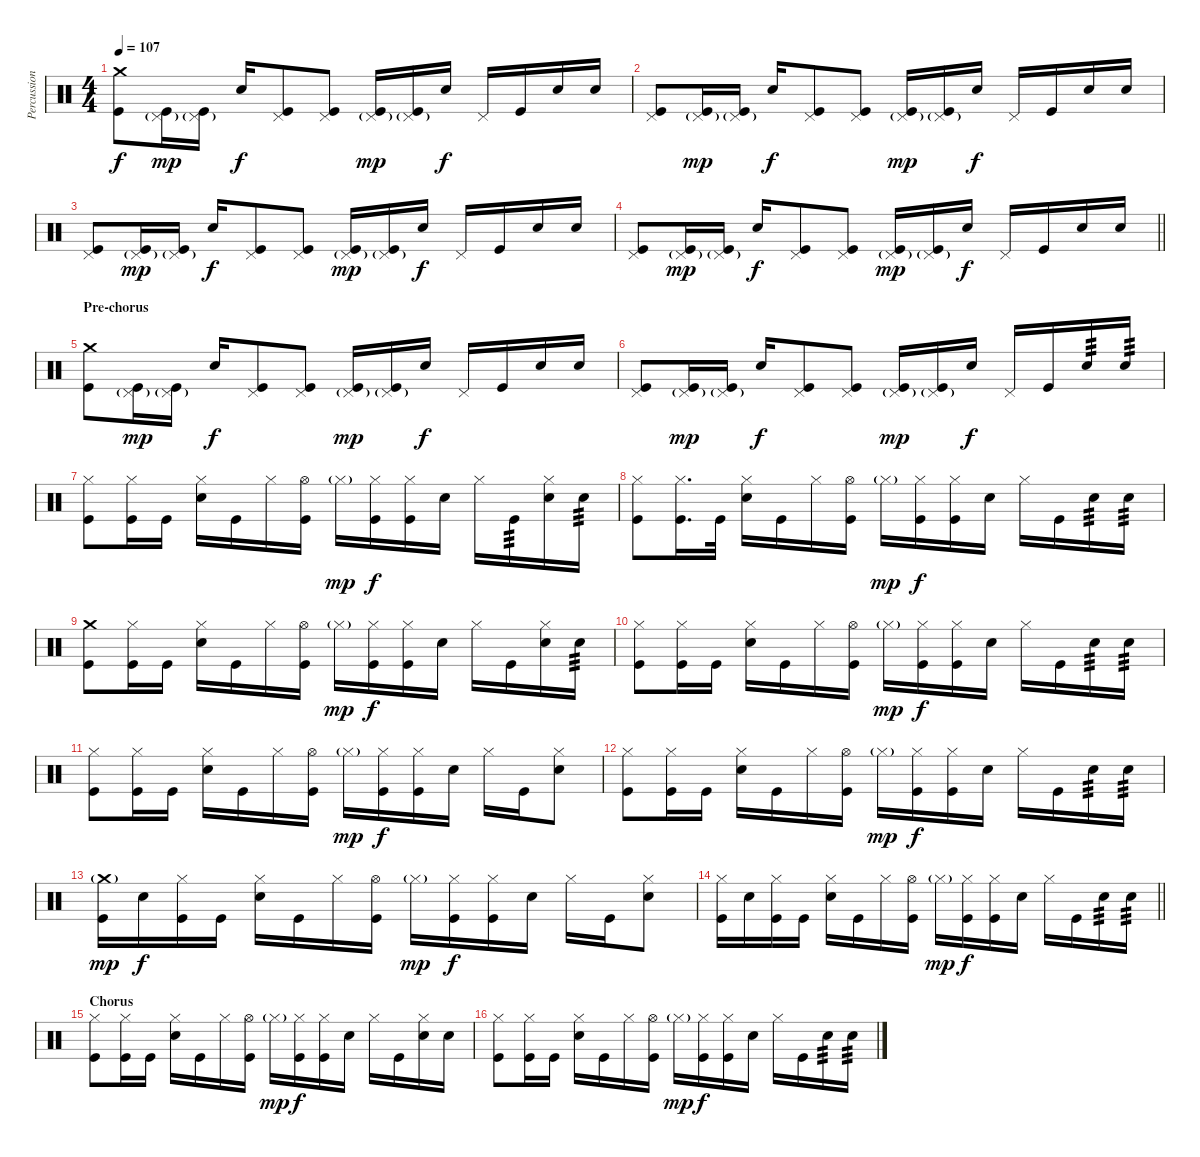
\track ("Percussion" "Percussion") {instrument percussion}
\staff {score}
\articulation defaults
\ts (4 4)
\tempo 107
\clef neutral
\ks c
("Crash medium (hit)" "Kick (hit)").8{dy f} ("Pedal Hi-Hat (hit)"{g} "Kick (hit)").16{dy mp} ("Pedal Hi-Hat (hit)"{g} "Kick (hit)").16 "Snare (hit) 2".16{dy f} ("Pedal Hi-Hat (hit)" "Kick (hit)").8 ("Pedal Hi-Hat (hit)" "Kick (hit)").8 ("Pedal Hi-Hat (hit)"{g} "Kick (hit)").16{dy mp} ("Pedal Hi-Hat (hit)"{g} "Kick (hit)").16 "Snare (hit) 2".16{dy f} "Pedal Hi-Hat (hit)".16 "Kick (hit)".16 "Snare (hit) 2".16 "Snare (hit) 2".16 |
("Pedal Hi-Hat (hit)" "Kick (hit)").8 ("Pedal Hi-Hat (hit)"{g} "Kick (hit)").16{dy mp} ("Pedal Hi-Hat (hit)"{g} "Kick (hit)").16 "Snare (hit) 2".16{dy f} ("Pedal Hi-Hat (hit)" "Kick (hit)").8 ("Pedal Hi-Hat (hit)" "Kick (hit)").8 ("Pedal Hi-Hat (hit)"{g} "Kick (hit)").16{dy mp} ("Pedal Hi-Hat (hit)"{g} "Kick (hit)").16 "Snare (hit) 2".16{dy f} "Pedal Hi-Hat (hit)".16 "Kick (hit)".16 "Snare (hit) 2".16 "Snare (hit) 2".16 |
("Pedal Hi-Hat (hit)" "Kick (hit)").8 ("Pedal Hi-Hat (hit)"{g} "Kick (hit)").16{dy mp} ("Pedal Hi-Hat (hit)"{g} "Kick (hit)").16 "Snare (hit) 2".16{dy f} ("Pedal Hi-Hat (hit)" "Kick (hit)").8 ("Pedal Hi-Hat (hit)" "Kick (hit)").8 ("Pedal Hi-Hat (hit)"{g} "Kick (hit)").16{dy mp} ("Pedal Hi-Hat (hit)"{g} "Kick (hit)").16 "Snare (hit) 2".16{dy f} "Pedal Hi-Hat (hit)".16 "Kick (hit)".16 "Snare (hit) 2".16 "Snare (hit) 2".16 |
\barLineRight lightlight
("Pedal Hi-Hat (hit)" "Kick (hit)").8 ("Pedal Hi-Hat (hit)"{g} "Kick (hit)").16{dy mp} ("Pedal Hi-Hat (hit)"{g} "Kick (hit)").16 "Snare (hit) 2".16{dy f} ("Pedal Hi-Hat (hit)" "Kick (hit)").8 ("Pedal Hi-Hat (hit)" "Kick (hit)").8 ("Pedal Hi-Hat (hit)"{g} "Kick (hit)").16{dy mp} ("Pedal Hi-Hat (hit)"{g} "Kick (hit)").16 "Snare (hit) 2".16{dy f} "Pedal Hi-Hat (hit)".16 "Kick (hit)".16 "Snare (hit) 2".16 "Snare (hit) 2".16 |
\section ("" "Pre-chorus")
("Crash medium (hit)" "Kick (hit)").8 ("Pedal Hi-Hat (hit)"{g} "Kick (hit)").16{dy mp} ("Pedal Hi-Hat (hit)"{g} "Kick (hit)").16 "Snare (hit) 2".16{dy f} ("Pedal Hi-Hat (hit)" "Kick (hit)").8 ("Pedal Hi-Hat (hit)" "Kick (hit)").8 ("Pedal Hi-Hat (hit)"{g} "Kick (hit)").16{dy mp} ("Pedal Hi-Hat (hit)"{g} "Kick (hit)").16 "Snare (hit) 2".16{dy f} "Pedal Hi-Hat (hit)".16 "Kick (hit)".16 "Snare (hit) 2".16 "Snare (hit) 2".16 |
("Pedal Hi-Hat (hit)" "Kick (hit)").8 ("Pedal Hi-Hat (hit)"{g} "Kick (hit)").16{dy mp} ("Pedal Hi-Hat (hit)"{g} "Kick (hit)").16 "Snare (hit) 2".16{dy f} ("Pedal Hi-Hat (hit)" "Kick (hit)").8 ("Pedal Hi-Hat (hit)" "Kick (hit)").8 ("Pedal Hi-Hat (hit)"{g} "Kick (hit)").16{dy mp} ("Pedal Hi-Hat (hit)"{g} "Kick (hit)").16 "Snare (hit) 2".16{dy f} "Pedal Hi-Hat (hit)".16 "Kick (hit)".16 "Snare (hit) 2".16{tp 3} "Snare (hit) 2".16{tp 3} |
("Hi-Hat (closed)" "Kick (hit)").8 ("Hi-Hat (closed)" "Kick (hit)").16 "Kick (hit)".16 ("Hi-Hat (closed)" "Snare (hit) 2").16 "Kick (hit)".16 "Hi-Hat (closed)".16 ("Hi-Hat (open)" "Kick (hit)").16 "Hi-Hat (closed)"{g}.16{dy mp} ("Hi-Hat (closed)" "Kick (hit)").16{dy f} ("Hi-Hat (closed)" "Kick (hit)").16 "Snare (hit) 2".16 "Hi-Hat (closed)".16 "Kick (hit)".16{tp 3} ("Hi-Hat (closed)" "Snare (hit) 2").16 "Snare (hit) 2".16{tp 3} |
("Hi-Hat (closed)" "Kick (hit)").8 ("Hi-Hat (closed)" "Kick (hit)").16{d} "Kick (hit)".32 ("Hi-Hat (closed)" "Snare (hit) 2").16 "Kick (hit)".16 "Hi-Hat (closed)".16 ("Hi-Hat (open)" "Kick (hit)").16 "Hi-Hat (closed)"{g}.16{dy mp} ("Hi-Hat (closed)" "Kick (hit)").16{dy f} ("Hi-Hat (closed)" "Kick (hit)").16 "Snare (hit) 2".16 "Hi-Hat (closed)".16 "Kick (hit)".16 "Snare (hit) 2".16{tp 3} "Snare (hit) 2".16{tp 3} |
("Crash medium (hit)" "Kick (hit)").8 ("Hi-Hat (closed)" "Kick (hit)").16 "Kick (hit)".16 ("Hi-Hat (closed)" "Snare (hit) 2").16 "Kick (hit)".16 "Hi-Hat (closed)".16 ("Hi-Hat (open)" "Kick (hit)").16 "Hi-Hat (closed)"{g}.16{dy mp} ("Hi-Hat (closed)" "Kick (hit)").16{dy f} ("Hi-Hat (closed)" "Kick (hit)").16 "Snare (hit) 2".16 "Hi-Hat (closed)".16 "Kick (hit)".16 ("Hi-Hat (closed)" "Snare (hit) 2").16 "Snare (hit) 2".16{tp 3} |
("Hi-Hat (closed)" "Kick (hit)").8 ("Hi-Hat (closed)" "Kick (hit)").16 "Kick (hit)".16 ("Hi-Hat (closed)" "Snare (hit) 2").16 "Kick (hit)".16 "Hi-Hat (closed)".16 ("Hi-Hat (open)" "Kick (hit)").16 "Hi-Hat (closed)"{g}.16{dy mp} ("Hi-Hat (closed)" "Kick (hit)").16{dy f} ("Hi-Hat (closed)" "Kick (hit)").16 "Snare (hit) 2".16 "Hi-Hat (closed)".16 "Kick (hit)".16 "Snare (hit) 2".16{tp 3} "Snare (hit) 2".16{tp 3} |
("Hi-Hat (closed)" "Kick (hit)").8 ("Hi-Hat (closed)" "Kick (hit)").16 "Kick (hit)".16 ("Hi-Hat (closed)" "Snare (hit) 2").16 "Kick (hit)".16 "Hi-Hat (closed)".16 ("Hi-Hat (open)" "Kick (hit)").16 "Hi-Hat (closed)"{g}.16{dy mp} ("Hi-Hat (closed)" "Kick (hit)").16{dy f} ("Hi-Hat (closed)" "Kick (hit)").16 "Snare (hit) 2".16 "Hi-Hat (closed)".16 "Kick (hit)".16 ("Hi-Hat (closed)" "Snare (hit) 2").8 |
("Hi-Hat (closed)" "Kick (hit)").8 ("Hi-Hat (closed)" "Kick (hit)").16 "Kick (hit)".16 ("Hi-Hat (closed)" "Snare (hit) 2").16 "Kick (hit)".16 "Hi-Hat (closed)".16 ("Hi-Hat (open)" "Kick (hit)").16 "Hi-Hat (closed)"{g}.16{dy mp} ("Hi-Hat (closed)" "Kick (hit)").16{dy f} ("Hi-Hat (closed)" "Kick (hit)").16 "Snare (hit) 2".16 "Hi-Hat (closed)".16 "Kick (hit)".16 "Snare (hit) 2".16{tp 3} "Snare (hit) 2".16{tp 3} |
("Crash medium (hit)"{g} "Kick (hit)").16{dy mp} "Snare (hit) 2".16{dy f} ("Hi-Hat (closed)" "Kick (hit)").16 "Kick (hit)".16 ("Hi-Hat (closed)" "Snare (hit) 2").16 "Kick (hit)".16 "Hi-Hat (closed)".16 ("Hi-Hat (open)" "Kick (hit)").16 "Hi-Hat (closed)"{g}.16{dy mp} ("Hi-Hat (closed)" "Kick (hit)").16{dy f} ("Hi-Hat (closed)" "Kick (hit)").16 "Snare (hit) 2".16 "Hi-Hat (closed)".16 "Kick (hit)".16 ("Hi-Hat (closed)" "Snare (hit) 2").8 |
\barLineRight lightlight
("Hi-Hat (closed)" "Kick (hit)").16 "Snare (hit) 2".16 ("Hi-Hat (closed)" "Kick (hit)").16 "Kick (hit)".16 ("Hi-Hat (closed)" "Snare (hit) 2").16 "Kick (hit)".16 "Hi-Hat (closed)".16 ("Hi-Hat (open)" "Kick (hit)").16 "Hi-Hat (closed)"{g}.16{dy mp} ("Hi-Hat (closed)" "Kick (hit)").16{dy f} ("Hi-Hat (closed)" "Kick (hit)").16 "Snare (hit) 2".16 "Hi-Hat (closed)".16 "Kick (hit)".16 "Snare (hit) 2".16{tp 3} "Snare (hit) 2".16{tp 3} |
\section ("" "Chorus")
("Hi-Hat (closed)" "Kick (hit)").8 ("Hi-Hat (closed)" "Kick (hit)").16 "Kick (hit)".16 ("Hi-Hat (closed)" "Snare (hit) 2").16 "Kick (hit)".16 "Hi-Hat (closed)".16 ("Hi-Hat (open)" "Kick (hit)").16 "Hi-Hat (closed)"{g}.16{dy mp} ("Hi-Hat (closed)" "Kick (hit)").16{dy f} ("Hi-Hat (closed)" "Kick (hit)").16 "Snare (hit) 2".16 "Hi-Hat (closed)".16 "Kick (hit)".16 ("Hi-Hat (closed)" "Snare (hit) 2").16 "Snare (hit) 2".16 |
("Hi-Hat (closed)" "Kick (hit)").8 ("Hi-Hat (closed)" "Kick (hit)").16 "Kick (hit)".16 ("Hi-Hat (closed)" "Snare (hit) 2").16 "Kick (hit)".16 "Hi-Hat (closed)".16 ("Hi-Hat (open)" "Kick (hit)").16 "Hi-Hat (closed)"{g}.16{dy mp} ("Hi-Hat (closed)" "Kick (hit)").16{dy f} ("Hi-Hat (closed)" "Kick (hit)").16 "Snare (hit) 2".16 "Hi-Hat (closed)".16 "Kick (hit)".16 "Snare (hit) 2".16{tp 3} "Snare (hit) 2".16{tp 3}
